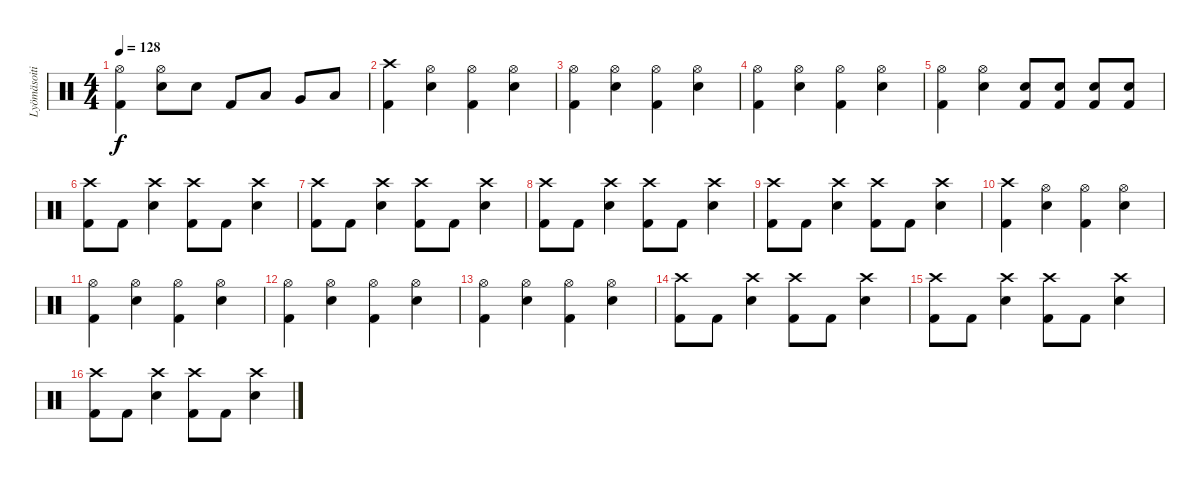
\track ("Lyömäsoitin" "Lyömäsoiti") {instrument percussion}
\staff {score}
\articulation defaults
\ts (4 4)
\tempo 128
\clef neutral
\ks c
("Hi-Hat (open)" "Kick (hit) 2").4{dy f} ("Hi-Hat (open)" "Electric Snare (hit)").8 "Electric Snare (hit)".8 "Kick (hit) 2".8 "Low Tom (hit)".8 "Very Low Tom (hit)".8 "Low Floor Tom (hit)".8 |
("Crash high (hit)" "Kick (hit) 2").4 ("Hi-Hat (open)" "Electric Snare (hit)").4 ("Hi-Hat (open)" "Kick (hit) 2").4 ("Hi-Hat (open)" "Electric Snare (hit)").4 |
("Hi-Hat (open)" "Kick (hit) 2").4 ("Hi-Hat (open)" "Electric Snare (hit)").4 ("Hi-Hat (open)" "Kick (hit) 2").4 ("Hi-Hat (open)" "Electric Snare (hit)").4 |
("Hi-Hat (open)" "Kick (hit) 2").4 ("Hi-Hat (open)" "Electric Snare (hit)").4 ("Hi-Hat (open)" "Kick (hit) 2").4 ("Hi-Hat (open)" "Electric Snare (hit)").4 |
("Hi-Hat (open)" "Kick (hit) 2").4 ("Hi-Hat (open)" "Electric Snare (hit)").4 ("Electric Snare (hit)" "Kick (hit) 2").8 ("Electric Snare (hit)" "Kick (hit) 2").8 ("Electric Snare (hit)" "Kick (hit) 2").8 ("Electric Snare (hit)" "Kick (hit) 2").8 |
("Crash high (hit)" "Kick (hit) 2").8 "Kick (hit) 2".8 ("Crash high (hit)" "Electric Snare (hit)").4 ("Crash high (hit)" "Kick (hit) 2").8 "Kick (hit) 2".8 ("Crash high (hit)" "Electric Snare (hit)").4 |
("Crash high (hit)" "Kick (hit) 2").8 "Kick (hit) 2".8 ("Crash high (hit)" "Electric Snare (hit)").4 ("Crash high (hit)" "Kick (hit) 2").8 "Kick (hit) 2".8 ("Crash high (hit)" "Electric Snare (hit)").4 |
("Crash high (hit)" "Kick (hit) 2").8 "Kick (hit) 2".8 ("Crash high (hit)" "Electric Snare (hit)").4 ("Crash high (hit)" "Kick (hit) 2").8 "Kick (hit) 2".8 ("Crash high (hit)" "Electric Snare (hit)").4 |
("Crash high (hit)" "Kick (hit) 2").8 "Kick (hit) 2".8 ("Crash high (hit)" "Electric Snare (hit)").4 ("Crash high (hit)" "Kick (hit) 2").8 "Kick (hit) 2".8 ("Crash high (hit)" "Electric Snare (hit)").4 |
("Crash high (hit)" "Kick (hit) 2").4 ("Hi-Hat (open)" "Electric Snare (hit)").4 ("Hi-Hat (open)" "Kick (hit) 2").4 ("Hi-Hat (open)" "Electric Snare (hit)").4 |
("Hi-Hat (open)" "Kick (hit) 2").4 ("Hi-Hat (open)" "Electric Snare (hit)").4 ("Hi-Hat (open)" "Kick (hit) 2").4 ("Hi-Hat (open)" "Electric Snare (hit)").4 |
("Hi-Hat (open)" "Kick (hit) 2").4 ("Hi-Hat (open)" "Electric Snare (hit)").4 ("Hi-Hat (open)" "Kick (hit) 2").4 ("Hi-Hat (open)" "Electric Snare (hit)").4 |
("Hi-Hat (open)" "Kick (hit) 2").4 ("Hi-Hat (open)" "Electric Snare (hit)").4 ("Hi-Hat (open)" "Kick (hit) 2").4 ("Hi-Hat (open)" "Electric Snare (hit)").4 |
("Crash high (hit)" "Kick (hit) 2").8 "Kick (hit) 2".8 ("Crash high (hit)" "Electric Snare (hit)").4 ("Crash high (hit)" "Kick (hit) 2").8 "Kick (hit) 2".8 ("Crash high (hit)" "Electric Snare (hit)").4 |
("Crash high (hit)" "Kick (hit) 2").8 "Kick (hit) 2".8 ("Crash high (hit)" "Electric Snare (hit)").4 ("Crash high (hit)" "Kick (hit) 2").8 "Kick (hit) 2".8 ("Crash high (hit)" "Electric Snare (hit)").4 |
("Crash high (hit)" "Kick (hit) 2").8 "Kick (hit) 2".8 ("Crash high (hit)" "Electric Snare (hit)").4 ("Crash high (hit)" "Kick (hit) 2").8 "Kick (hit) 2".8 ("Crash high (hit)" "Electric Snare (hit)").4
